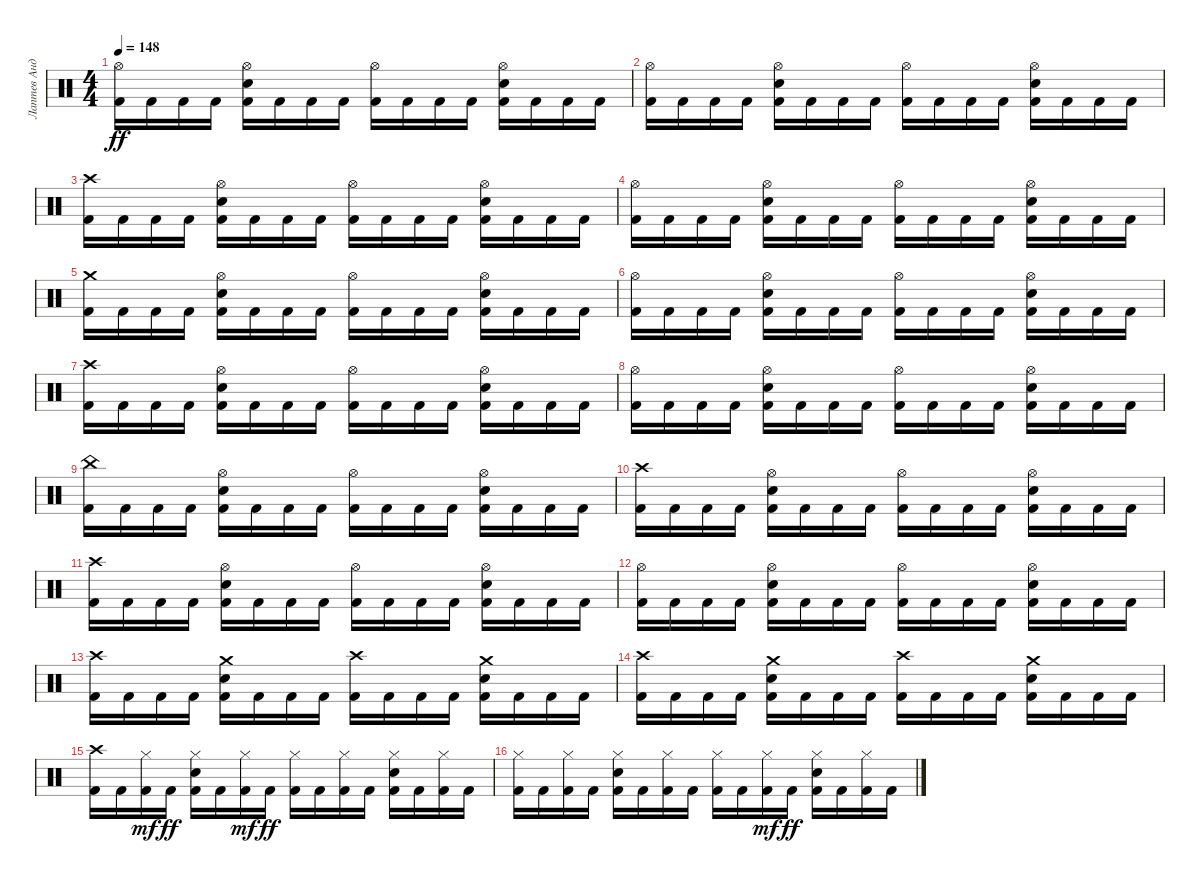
\track ("Лаптев Андрей" "Лаптев Анд") {instrument percussion}
\staff {score}
\articulation defaults
\ts (4 4)
\tempo 148
\clef neutral
\ks c
("Hi-Hat (open)" "Kick (hit) 2").16{dy ff} "Kick (hit) 2".16 "Kick (hit) 2".16 "Kick (hit) 2".16 ("Hi-Hat (open)" "Kick (hit) 2" "Electric Snare (hit)").16 "Kick (hit) 2".16 "Kick (hit) 2".16 "Kick (hit) 2".16 ("Hi-Hat (open)" "Kick (hit) 2").16 "Kick (hit) 2".16 "Kick (hit) 2".16 "Kick (hit) 2".16 ("Hi-Hat (open)" "Electric Snare (hit)" "Kick (hit) 2").16 "Kick (hit) 2".16 "Kick (hit) 2".16 "Kick (hit) 2".16 |
("Hi-Hat (open)" "Kick (hit) 2").16 "Kick (hit) 2".16 "Kick (hit) 2".16 "Kick (hit) 2".16 ("Kick (hit) 2" "Hi-Hat (open)" "Electric Snare (hit)").16 "Kick (hit) 2".16 "Kick (hit) 2".16 "Kick (hit) 2".16 ("Hi-Hat (open)" "Kick (hit) 2").16 "Kick (hit) 2".16 "Kick (hit) 2".16 "Kick (hit) 2".16 ("Kick (hit) 2" "Electric Snare (hit)" "Hi-Hat (open)").16 "Kick (hit) 2".16 "Kick (hit) 2".16 "Kick (hit) 2".16 |
("Crash high (hit)" "Kick (hit) 2").16 "Kick (hit) 2".16 "Kick (hit) 2".16 "Kick (hit) 2".16 ("Hi-Hat (open)" "Kick (hit) 2" "Electric Snare (hit)").16 "Kick (hit) 2".16 "Kick (hit) 2".16 "Kick (hit) 2".16 ("Hi-Hat (open)" "Kick (hit) 2").16 "Kick (hit) 2".16 "Kick (hit) 2".16 "Kick (hit) 2".16 ("Hi-Hat (open)" "Electric Snare (hit)" "Kick (hit) 2").16 "Kick (hit) 2".16 "Kick (hit) 2".16 "Kick (hit) 2".16 |
("Hi-Hat (open)" "Kick (hit) 2").16 "Kick (hit) 2".16 "Kick (hit) 2".16 "Kick (hit) 2".16 ("Kick (hit) 2" "Hi-Hat (open)" "Electric Snare (hit)").16 "Kick (hit) 2".16 "Kick (hit) 2".16 "Kick (hit) 2".16 ("Hi-Hat (open)" "Kick (hit) 2").16 "Kick (hit) 2".16 "Kick (hit) 2".16 "Kick (hit) 2".16 ("Kick (hit) 2" "Electric Snare (hit)" "Hi-Hat (open)").16 "Kick (hit) 2".16 "Kick (hit) 2".16 "Kick (hit) 2".16 |
("Crash medium (hit)" "Kick (hit) 2").16 "Kick (hit) 2".16 "Kick (hit) 2".16 "Kick (hit) 2".16 ("Hi-Hat (open)" "Kick (hit) 2" "Electric Snare (hit)").16 "Kick (hit) 2".16 "Kick (hit) 2".16 "Kick (hit) 2".16 ("Hi-Hat (open)" "Kick (hit) 2").16 "Kick (hit) 2".16 "Kick (hit) 2".16 "Kick (hit) 2".16 ("Hi-Hat (open)" "Electric Snare (hit)" "Kick (hit) 2").16 "Kick (hit) 2".16 "Kick (hit) 2".16 "Kick (hit) 2".16 |
("Hi-Hat (open)" "Kick (hit) 2").16 "Kick (hit) 2".16 "Kick (hit) 2".16 "Kick (hit) 2".16 ("Kick (hit) 2" "Hi-Hat (open)" "Electric Snare (hit)").16 "Kick (hit) 2".16 "Kick (hit) 2".16 "Kick (hit) 2".16 ("Hi-Hat (open)" "Kick (hit) 2").16 "Kick (hit) 2".16 "Kick (hit) 2".16 "Kick (hit) 2".16 ("Kick (hit) 2" "Electric Snare (hit)" "Hi-Hat (open)").16 "Kick (hit) 2".16 "Kick (hit) 2".16 "Kick (hit) 2".16 |
("Crash high (hit)" "Kick (hit) 2").16 "Kick (hit) 2".16 "Kick (hit) 2".16 "Kick (hit) 2".16 ("Hi-Hat (open)" "Kick (hit) 2" "Electric Snare (hit)").16 "Kick (hit) 2".16 "Kick (hit) 2".16 "Kick (hit) 2".16 ("Hi-Hat (open)" "Kick (hit) 2").16 "Kick (hit) 2".16 "Kick (hit) 2".16 "Kick (hit) 2".16 ("Hi-Hat (open)" "Electric Snare (hit)" "Kick (hit) 2").16 "Kick (hit) 2".16 "Kick (hit) 2".16 "Kick (hit) 2".16 |
("Hi-Hat (open)" "Kick (hit) 2").16 "Kick (hit) 2".16 "Kick (hit) 2".16 "Kick (hit) 2".16 ("Kick (hit) 2" "Hi-Hat (open)" "Electric Snare (hit)").16 "Kick (hit) 2".16 "Kick (hit) 2".16 "Kick (hit) 2".16 ("Hi-Hat (open)" "Kick (hit) 2").16 "Kick (hit) 2".16 "Kick (hit) 2".16 "Kick (hit) 2".16 ("Kick (hit) 2" "Electric Snare (hit)" "Hi-Hat (open)").16 "Kick (hit) 2".16 "Kick (hit) 2".16 "Kick (hit) 2".16 |
("China (hit)" "Kick (hit) 2").16 "Kick (hit) 2".16 "Kick (hit) 2".16 "Kick (hit) 2".16 ("Hi-Hat (open)" "Kick (hit) 2" "Electric Snare (hit)").16 "Kick (hit) 2".16 "Kick (hit) 2".16 "Kick (hit) 2".16 ("Hi-Hat (open)" "Kick (hit) 2").16 "Kick (hit) 2".16 "Kick (hit) 2".16 "Kick (hit) 2".16 ("Hi-Hat (open)" "Electric Snare (hit)" "Kick (hit) 2").16 "Kick (hit) 2".16 "Kick (hit) 2".16 "Kick (hit) 2".16 |
("Crash high (hit)" "Kick (hit) 2").16 "Kick (hit) 2".16 "Kick (hit) 2".16 "Kick (hit) 2".16 ("Kick (hit) 2" "Hi-Hat (open)" "Electric Snare (hit)").16 "Kick (hit) 2".16 "Kick (hit) 2".16 "Kick (hit) 2".16 ("Hi-Hat (open)" "Kick (hit) 2").16 "Kick (hit) 2".16 "Kick (hit) 2".16 "Kick (hit) 2".16 ("Kick (hit) 2" "Electric Snare (hit)" "Hi-Hat (open)").16 "Kick (hit) 2".16 "Kick (hit) 2".16 "Kick (hit) 2".16 |
("Crash high (hit)" "Kick (hit) 2").16 "Kick (hit) 2".16 "Kick (hit) 2".16 "Kick (hit) 2".16 ("Hi-Hat (open)" "Kick (hit) 2" "Electric Snare (hit)").16 "Kick (hit) 2".16 "Kick (hit) 2".16 "Kick (hit) 2".16 ("Hi-Hat (open)" "Kick (hit) 2").16 "Kick (hit) 2".16 "Kick (hit) 2".16 "Kick (hit) 2".16 ("Hi-Hat (open)" "Electric Snare (hit)" "Kick (hit) 2").16 "Kick (hit) 2".16 "Kick (hit) 2".16 "Kick (hit) 2".16 |
("Hi-Hat (open)" "Kick (hit) 2").16 "Kick (hit) 2".16 "Kick (hit) 2".16 "Kick (hit) 2".16 ("Kick (hit) 2" "Hi-Hat (open)" "Electric Snare (hit)").16 "Kick (hit) 2".16 "Kick (hit) 2".16 "Kick (hit) 2".16 ("Hi-Hat (open)" "Kick (hit) 2").16 "Kick (hit) 2".16 "Kick (hit) 2".16 "Kick (hit) 2".16 ("Kick (hit) 2" "Electric Snare (hit)" "Hi-Hat (open)").16 "Kick (hit) 2".16 "Kick (hit) 2".16 "Kick (hit) 2".16 |
("Crash high (hit)" "Kick (hit) 2").16 "Kick (hit) 2".16 "Kick (hit) 2".16 "Kick (hit) 2".16 ("Crash medium (hit)" "Kick (hit) 2" "Electric Snare (hit)").16 "Kick (hit) 2".16 "Kick (hit) 2".16 "Kick (hit) 2".16 ("Crash high (hit)" "Kick (hit) 2").16 "Kick (hit) 2".16 "Kick (hit) 2".16 "Kick (hit) 2".16 ("Crash medium (hit)" "Electric Snare (hit)" "Kick (hit) 2").16 "Kick (hit) 2".16 "Kick (hit) 2".16 "Kick (hit) 2".16 |
("Crash high (hit)" "Kick (hit) 2").16 "Kick (hit) 2".16 "Kick (hit) 2".16 "Kick (hit) 2".16 ("Kick (hit) 2" "Crash medium (hit)" "Electric Snare (hit)").16 "Kick (hit) 2".16 "Kick (hit) 2".16 "Kick (hit) 2".16 ("Crash high (hit)" "Kick (hit) 2").16 "Kick (hit) 2".16 "Kick (hit) 2".16 "Kick (hit) 2".16 ("Kick (hit) 2" "Electric Snare (hit)" "Crash medium (hit)").16 "Kick (hit) 2".16 "Kick (hit) 2".16 "Kick (hit) 2".16 |
("Crash high (hit)" "Kick (hit) 2").16 "Kick (hit) 2".16 ("Kick (hit) 2" "Hi-Hat (closed)").16{dy mf} "Kick (hit) 2".16{dy ff} ("Hi-Hat (closed)" "Kick (hit) 2" "Electric Snare (hit)").16 "Kick (hit) 2".16 ("Kick (hit) 2" "Hi-Hat (closed)").16{dy mf} "Kick (hit) 2".16{dy ff} ("Hi-Hat (closed)" "Kick (hit) 2").16 "Kick (hit) 2".16 ("Hi-Hat (closed)" "Kick (hit) 2").16 "Kick (hit) 2".16 ("Hi-Hat (closed)" "Kick (hit) 2" "Electric Snare (hit)").16 "Kick (hit) 2".16 ("Hi-Hat (closed)" "Kick (hit) 2").16 "Kick (hit) 2".16 |
("Hi-Hat (closed)" "Kick (hit) 2").16 "Kick (hit) 2".16 ("Hi-Hat (closed)" "Kick (hit) 2").16 "Kick (hit) 2".16 ("Hi-Hat (closed)" "Electric Snare (hit)" "Kick (hit) 2").16 "Kick (hit) 2".16 ("Hi-Hat (closed)" "Kick (hit) 2").16 "Kick (hit) 2".16 ("Kick (hit) 2" "Hi-Hat (closed)").16 "Kick (hit) 2".16 ("Kick (hit) 2" "Hi-Hat (closed)").16{dy mf} "Kick (hit) 2".16{dy ff} ("Electric Snare (hit)" "Kick (hit) 2" "Hi-Hat (closed)").16 "Kick (hit) 2".16 ("Hi-Hat (closed)" "Kick (hit) 2").16 "Kick (hit) 2".16
